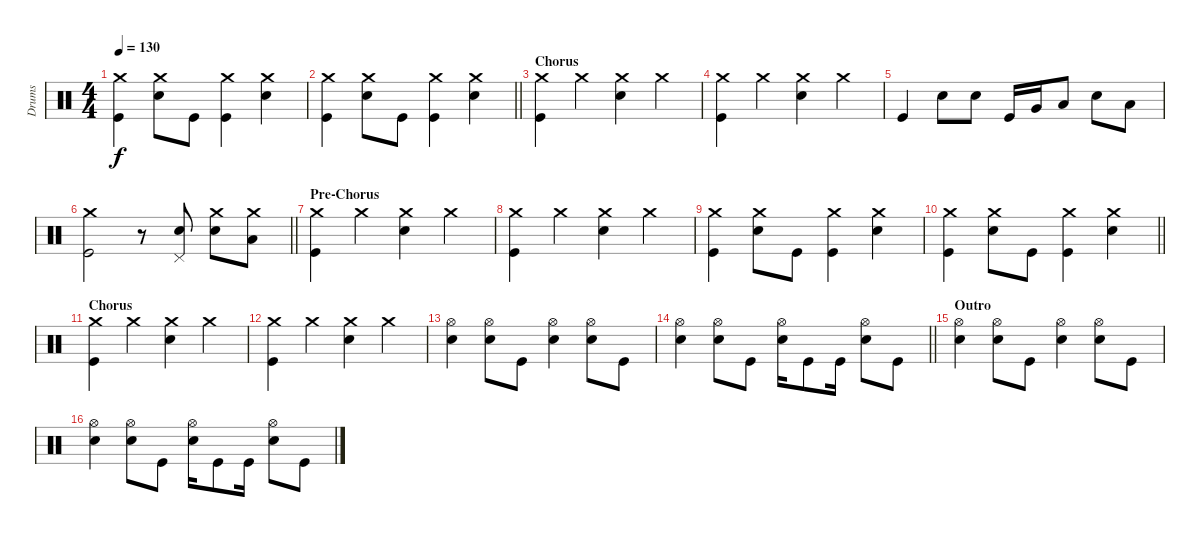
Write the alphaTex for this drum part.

\track ("Drums" "Drums") {instrument percussion}
\staff {score}
\articulation defaults
\ts (4 4)
\tempo 130
\clef neutral
\ks c
("Kick (hit)" "Crash medium (hit)").4{dy f} ("Electric Snare (hit)" "Crash medium (hit)").8 "Kick (hit)".8 ("Kick (hit)" "Crash medium (hit)").4 ("Electric Snare (hit)" "Crash medium (hit)").4 |
\barLineRight lightlight
("Kick (hit)" "Crash medium (hit)").4 ("Electric Snare (hit)" "Crash medium (hit)").8 "Kick (hit)".8 ("Kick (hit)" "Crash medium (hit)").4 ("Electric Snare (hit)" "Crash medium (hit)").4 |
\section ("" "Chorus")
("Kick (hit)" "Crash medium (hit)").4 "Crash medium (hit)".4 ("Electric Snare (hit)" "Crash medium (hit)").4 "Crash medium (hit)".4 |
("Kick (hit)" "Crash medium (hit)").4 "Crash medium (hit)".4 ("Electric Snare (hit)" "Crash medium (hit)").4 "Crash medium (hit)".4 |
"Kick (hit)".4 "Electric Snare (hit)".8 "Electric Snare (hit)".8 "Kick (hit)".16 "Very Low Tom (hit)".16 "Low Floor Tom (hit)".8 "Electric Snare (hit)".8 "Low Floor Tom (hit)".8 |
\barLineRight lightlight
("Kick (hit)" "Crash medium (hit)").2 r.8 ("Electric Snare (hit)" "Pedal Hi-Hat (hit)").8 ("Electric Snare (hit)" "Crash medium (hit)").8 ("Low Floor Tom (hit)" "Crash medium (hit)").8 |
\section ("" "Pre-Chorus")
("Kick (hit)" "Crash medium (hit)").4 "Crash medium (hit)".4 ("Electric Snare (hit)" "Crash medium (hit)").4 "Crash medium (hit)".4 |
("Kick (hit)" "Crash medium (hit)").4 "Crash medium (hit)".4 ("Electric Snare (hit)" "Crash medium (hit)").4 "Crash medium (hit)".4 |
("Kick (hit)" "Crash medium (hit)").4 ("Electric Snare (hit)" "Crash medium (hit)").8 "Kick (hit)".8 ("Kick (hit)" "Crash medium (hit)").4 ("Electric Snare (hit)" "Crash medium (hit)").4 |
\barLineRight lightlight
("Kick (hit)" "Crash medium (hit)").4 ("Electric Snare (hit)" "Crash medium (hit)").8 "Kick (hit)".8 ("Kick (hit)" "Crash medium (hit)").4 ("Electric Snare (hit)" "Crash medium (hit)").4 |
\section ("" "Chorus")
("Kick (hit)" "Crash medium (hit)").4 "Crash medium (hit)".4 ("Electric Snare (hit)" "Crash medium (hit)").4 "Crash medium (hit)".4 |
("Kick (hit)" "Crash medium (hit)").4 "Crash medium (hit)".4 ("Electric Snare (hit)" "Crash medium (hit)").4 "Crash medium (hit)".4 |
("Electric Snare (hit)" "Hi-Hat (open)").4 ("Electric Snare (hit)" "Hi-Hat (open)").8 "Kick (hit)".8 ("Electric Snare (hit)" "Hi-Hat (open)").4 ("Electric Snare (hit)" "Hi-Hat (open)").8 "Kick (hit)".8 |
\barLineRight lightlight
("Electric Snare (hit)" "Hi-Hat (open)").4 ("Electric Snare (hit)" "Hi-Hat (open)").8 "Kick (hit)".8 ("Electric Snare (hit)" "Hi-Hat (open)").16 "Kick (hit)".8 "Kick (hit)".16 ("Electric Snare (hit)" "Hi-Hat (open)").8 "Kick (hit)".8 |
\section ("" "Outro")
("Electric Snare (hit)" "Hi-Hat (open)").4 ("Electric Snare (hit)" "Hi-Hat (open)").8 "Kick (hit)".8 ("Electric Snare (hit)" "Hi-Hat (open)").4 ("Electric Snare (hit)" "Hi-Hat (open)").8 "Kick (hit)".8 |
("Electric Snare (hit)" "Hi-Hat (open)").4 ("Electric Snare (hit)" "Hi-Hat (open)").8 "Kick (hit)".8 ("Electric Snare (hit)" "Hi-Hat (open)").16 "Kick (hit)".8 "Kick (hit)".16 ("Electric Snare (hit)" "Hi-Hat (open)").8 "Kick (hit)".8
